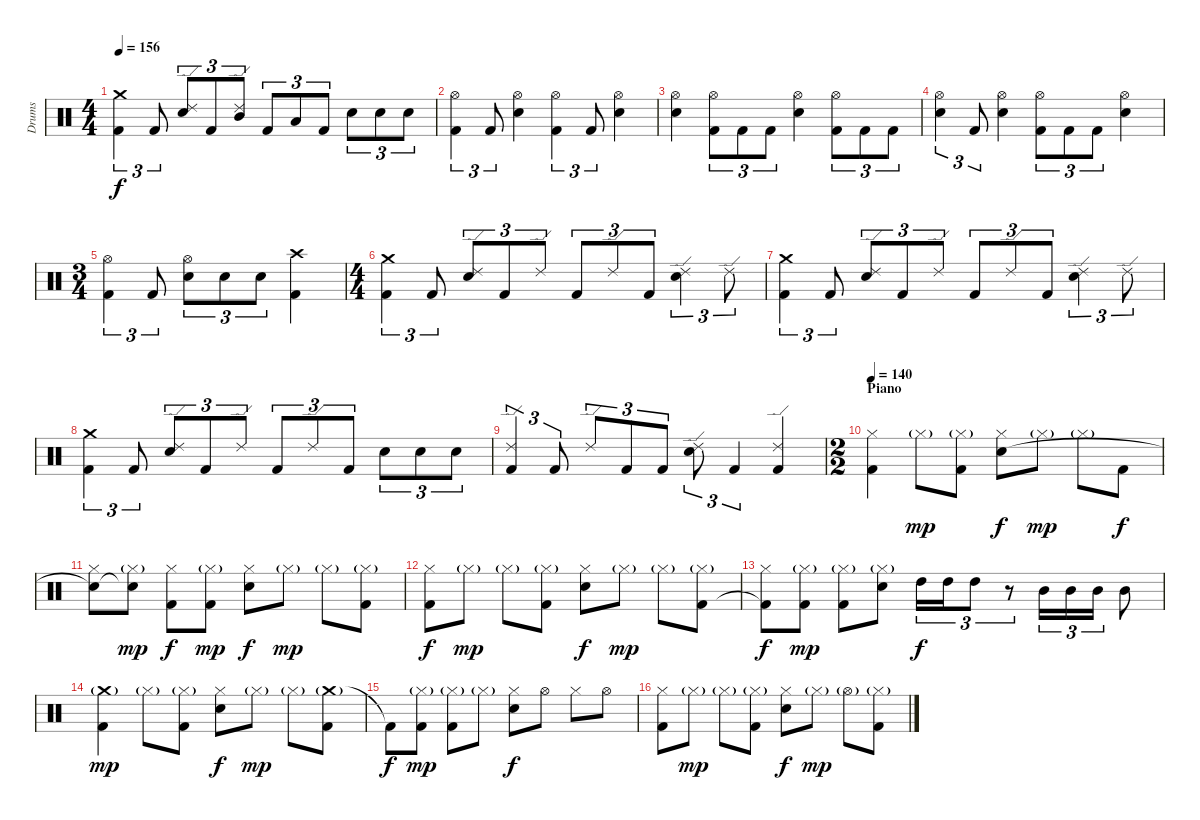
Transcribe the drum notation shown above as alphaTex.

\track ("Drums" "Drums") {instrument percussion}
\staff {score}
\articulation defaults
\ts (4 4)
\tempo 156
\clef neutral
\ks c
("Crash medium (hit)" "Kick (hit) 2").4{tu (3 2) dy f} "Kick (hit) 2".8{tu (3 2)} ("Ride (edge) 2" "Electric Snare (hit)").8{tu (3 2)} "Kick (hit) 2".8{tu (3 2)} ("Ride (edge) 2" "Mid Tom (hit)").8{tu (3 2)} "Kick (hit) 2".8{tu (3 2)} "Low Tom (hit)".8{tu (3 2)} "Kick (hit) 2".8{tu (3 2)} "Electric Snare (hit)".8{tu (3 2)} "Electric Snare (hit)".8{tu (3 2)} "Electric Snare (hit)".8{tu (3 2)} |
("Kick (hit) 2" "Hi-Hat (open)").4{tu (3 2)} "Kick (hit) 2".8{tu (3 2)} ("Electric Snare (hit)" "Hi-Hat (open)").4 ("Kick (hit) 2" "Hi-Hat (open)").4{tu (3 2)} "Kick (hit) 2".8{tu (3 2)} ("Electric Snare (hit)" "Hi-Hat (open)").4 |
("Electric Snare (hit)" "Hi-Hat (open)").4 ("Kick (hit) 2" "Hi-Hat (open)").8{tu (3 2)} "Kick (hit) 2".8{tu (3 2)} "Kick (hit) 2".8{tu (3 2)} ("Electric Snare (hit)" "Hi-Hat (open)").4 ("Kick (hit) 2" "Hi-Hat (open)").8{tu (3 2)} "Kick (hit) 2".8{tu (3 2)} "Kick (hit) 2".8{tu (3 2)} |
("Electric Snare (hit)" "Hi-Hat (open)").4{tu (3 2)} "Kick (hit) 2".8{tu (3 2)} ("Electric Snare (hit)" "Hi-Hat (open)").4 ("Kick (hit) 2" "Hi-Hat (open)").8{tu (3 2)} "Kick (hit) 2".8{tu (3 2)} "Kick (hit) 2".8{tu (3 2)} ("Electric Snare (hit)" "Hi-Hat (open)").4 |
\ts (3 4)
("Hi-Hat (open)" "Kick (hit) 2").4{tu (3 2)} "Kick (hit) 2".8{tu (3 2)} ("Hi-Hat (open)" "Electric Snare (hit)").8{tu (3 2)} "Electric Snare (hit)".8{tu (3 2)} "Electric Snare (hit)".8{tu (3 2)} ("Crash high (hit)" "Kick (hit) 2").4 |
\ts (4 4)
("Crash medium (hit)" "Kick (hit) 2").4{tu (3 2)} "Kick (hit) 2".8{tu (3 2)} ("Ride (edge) 2" "Electric Snare (hit)").8{tu (3 2)} "Kick (hit) 2".8{tu (3 2)} "Ride (edge) 2".8{tu (3 2)} "Kick (hit) 2".8{tu (3 2)} "Ride (edge) 2".8{tu (3 2)} "Kick (hit) 2".8{tu (3 2)} ("Ride (edge) 2" "Electric Snare (hit)").4{tu (3 2)} "Ride (edge) 2".8{tu (3 2)} |
("Crash medium (hit)" "Kick (hit) 2").4{tu (3 2)} "Kick (hit) 2".8{tu (3 2)} ("Ride (edge) 2" "Electric Snare (hit)").8{tu (3 2)} "Kick (hit) 2".8{tu (3 2)} "Ride (edge) 2".8{tu (3 2)} "Kick (hit) 2".8{tu (3 2)} "Ride (edge) 2".8{tu (3 2)} "Kick (hit) 2".8{tu (3 2)} ("Ride (edge) 2" "Electric Snare (hit)").4{tu (3 2)} "Ride (edge) 2".8{tu (3 2)} |
("Crash medium (hit)" "Kick (hit) 2").4{tu (3 2)} "Kick (hit) 2".8{tu (3 2)} ("Ride (edge) 2" "Electric Snare (hit)").8{tu (3 2)} "Kick (hit) 2".8{tu (3 2)} "Ride (edge) 2".8{tu (3 2)} "Kick (hit) 2".8{tu (3 2)} "Ride (edge) 2".8{tu (3 2)} "Kick (hit) 2".8{tu (3 2)} "Electric Snare (hit)".8{tu (3 2)} "Electric Snare (hit)".8{tu (3 2)} "Electric Snare (hit)".8{tu (3 2)} |
("Ride (edge) 2" "Kick (hit) 2").4{tu (3 2)} "Kick (hit) 2".8{tu (3 2)} "Ride (edge) 2".8{tu (3 2)} "Kick (hit) 2".8{tu (3 2)} "Kick (hit) 2".8{tu (3 2)} ("Ride (edge) 2" "Electric Snare (hit)").8{tu (3 2)} "Kick (hit) 2".4{tu (3 2)} ("Ride (edge) 2" "Kick (hit) 2").4 |
\ts (2 2)
\section ("" "Piano")
\tempo 140
("Hi-Hat (closed)" "Kick (hit) 2").4 "Hi-Hat (closed)"{g}.8{dy mp} ("Kick (hit) 2" "Hi-Hat (closed)"{g}).8 ("Hi-Hat (closed)" "Electric Snare (hit)").8{dy f} "Hi-Hat (closed)"{g}.8{dy mp} "Hi-Hat (closed)"{g}.8 "Kick (hit) 2".8{dy f} |
("Hi-Hat (closed)" "Snare (hit)"{t}).8 ("Hi-Hat (closed)"{g} "Snare (hit)"{t}).8{dy mp} ("Hi-Hat (closed)" "Kick (hit) 2").8{dy f} ("Hi-Hat (closed)"{g} "Kick (hit) 2").8{dy mp} ("Hi-Hat (closed)" "Electric Snare (hit)").8{dy f} "Hi-Hat (closed)"{g}.8{dy mp} "Hi-Hat (closed)"{g}.8 ("Hi-Hat (closed)"{g} "Kick (hit) 2").8 |
("Hi-Hat (closed)" "Kick (hit) 2").8{dy f} "Hi-Hat (closed)"{g}.8{dy mp} "Hi-Hat (closed)"{g}.8 ("Hi-Hat (closed)"{g} "Kick (hit) 2").8 ("Hi-Hat (closed)" "Electric Snare (hit)").8{dy f} "Hi-Hat (closed)"{g}.8{dy mp} "Hi-Hat (closed)"{g}.8 ("Hi-Hat (closed)"{g} "Kick (hit) 2").8 |
("Hi-Hat (closed)" "Kick (hit) 2"{t}).8{dy f} ("Hi-Hat (closed)"{g} "Kick (hit) 2").8{dy mp} ("Hi-Hat (closed)"{g} "Kick (hit) 2").8 ("Electric Snare (hit)" "Hi-Hat (closed)"{g}).8 "High Tom (hit)".16{tu (3 2) dy f} "High Tom (hit)".16{tu (3 2)} "High Tom (hit)".8{tu (3 2)} r.8{tu (3 2)} "Mid Tom (hit)".16{tu (3 2)} "Mid Tom (hit)".16{tu (3 2)} "Mid Tom (hit)".16{tu (3 2)} "Mid Tom (hit)".8 |
("Crash medium (hit)"{g} "Kick (hit) 2").4{dy mp} "Hi-Hat (closed)"{g}.8 ("Kick (hit) 2" "Hi-Hat (closed)"{g}).8 ("Hi-Hat (closed)" "Electric Snare (hit)").8{dy f} "Hi-Hat (closed)"{g}.8{dy mp} "Hi-Hat (closed)"{g}.8 ("Crash medium (hit)"{g} "Kick (hit) 2").8 |
"Kick (hit) 2"{t}.8{dy f} ("Hi-Hat (closed)"{g} "Kick (hit) 2").8{dy mp} ("Hi-Hat (closed)"{g} "Kick (hit) 2").8 "Hi-Hat (closed)"{g}.8 ("Hi-Hat (closed)" "Electric Snare (hit)").8{dy f} "Hi-Hat (open)".8 "Hi-Hat (closed)".8 "Hi-Hat (open)".8 |
("Hi-Hat (closed)" "Kick (hit) 2").8 "Hi-Hat (closed)"{g}.8{dy mp} "Hi-Hat (closed)"{g}.8 ("Hi-Hat (closed)"{g} "Kick (hit) 2").8 ("Hi-Hat (closed)" "Electric Snare (hit)").8{dy f} "Hi-Hat (closed)"{g}.8{dy mp} "Hi-Hat (open)"{g}.8 ("Hi-Hat (closed)"{g} "Kick (hit) 2").8
